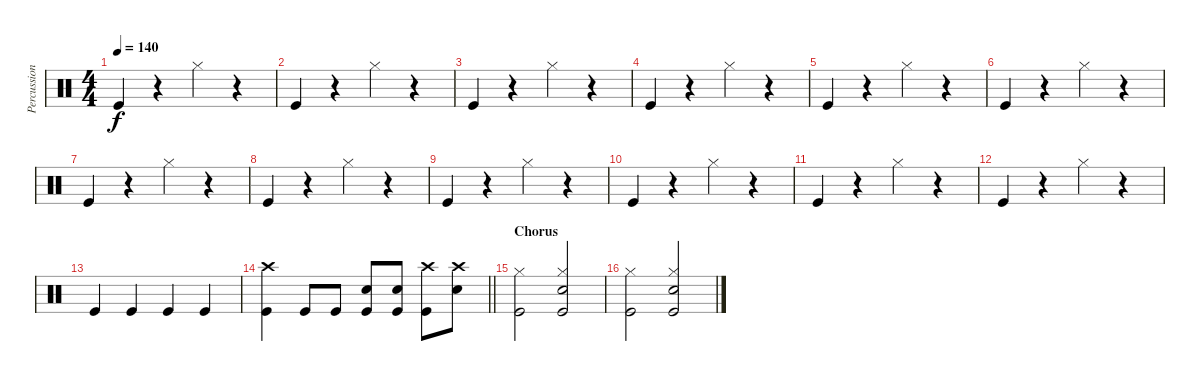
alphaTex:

\track ("Percussion" "Percussion") {instrument percussion}
\staff {score}
\articulation defaults
\ts (4 4)
\tempo 140
\clef neutral
\ks c "Kick (hit)".4{dy f}
r.4 "Hi-Hat (closed)".4 r.4 |
"Kick (hit)".4 r.4 "Hi-Hat (closed)".4 r.4 |
"Kick (hit)".4 r.4 "Hi-Hat (closed)".4 r.4 |
"Kick (hit)".4 r.4 "Hi-Hat (closed)".4 r.4 |
"Kick (hit)".4 r.4 "Hi-Hat (closed)".4 r.4 |
"Kick (hit)".4 r.4 "Hi-Hat (closed)".4 r.4 |
"Kick (hit)".4 r.4 "Hi-Hat (closed)".4 r.4 |
"Kick (hit)".4 r.4 "Hi-Hat (closed)".4 r.4 |
"Kick (hit)".4 r.4 "Hi-Hat (closed)".4 r.4 |
"Kick (hit)".4 r.4 "Hi-Hat (closed)".4 r.4 |
"Kick (hit)".4 r.4 "Hi-Hat (closed)".4 r.4 |
"Kick (hit)".4 r.4 "Hi-Hat (closed)".4 r.4 |
"Kick (hit)".4 "Kick (hit)".4 "Kick (hit)".4 "Kick (hit)".4 |
\barLineRight lightlight
("Crash high (hit)" "Kick (hit)").4 "Kick (hit)".8 "Kick (hit)".8 ("Snare (hit) 2" "Kick (hit)").8 ("Snare (hit) 2" "Kick (hit)").8 ("Crash high (hit)" "Kick (hit)").8 ("Crash high (hit)" "Snare (hit) 2").8 |
\section ("" "Chorus")
("Hi-Hat (closed)" "Kick (hit)").2 ("Hi-Hat (closed)" "Snare (hit) 2" "Kick (hit)").2 |
("Hi-Hat (closed)" "Kick (hit)").2 ("Hi-Hat (closed)" "Snare (hit) 2" "Kick (hit)").2
